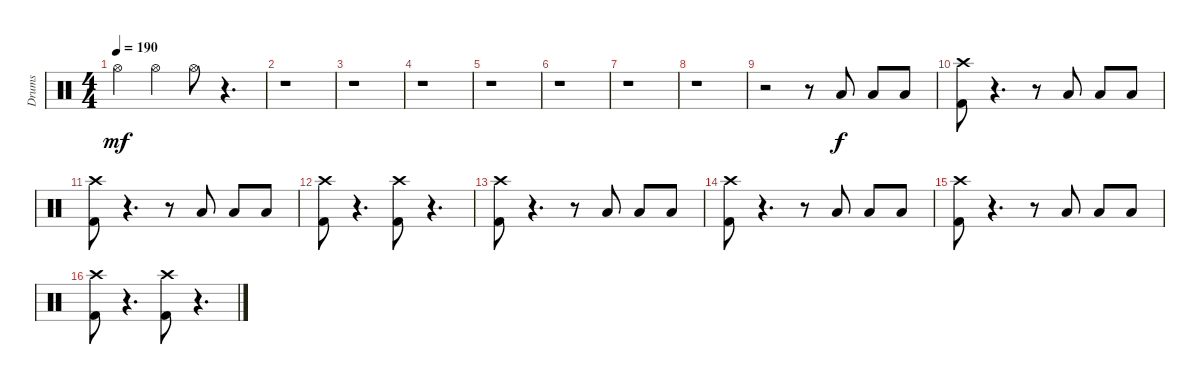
\track ("Drums" "Drums") {instrument percussion}
\staff {score}
\articulation defaults
\ts (4 4)
\tempo 190
\clef neutral
\ks c "Hi-Hat (open)".4{dy mf} "Hi-Hat (open)".4 "Hi-Hat (open)".8
r.4{d} |
r.1 |
r.1 |
r.1 |
r.1 |
r.1 |
r.1 |
r.1 |
r.2 r.8 "Low Tom (hit)".8{dy f} "Low Tom (hit)".8 "Low Floor Tom (hit)".8 |
("Kick (hit) 2" "Crash high (hit)").8 r.4{d} r.8 "Low Tom (hit)".8 "Low Tom (hit)".8 "Low Tom (hit)".8 |
("Kick (hit) 2" "Crash high (hit)").8 r.4{d} r.8 "Low Tom (hit)".8 "Low Tom (hit)".8 "Low Tom (hit)".8 |
("Kick (hit) 2" "Crash high (hit)").8 r.4{d} ("Kick (hit) 2" "Crash high (hit)").8 r.4{d} |
("Kick (hit) 2" "Crash high (hit)").8 r.4{d} r.8 "Low Tom (hit)".8 "Low Tom (hit)".8 "Low Tom (hit)".8 |
("Kick (hit) 2" "Crash high (hit)").8 r.4{d} r.8 "Low Tom (hit)".8 "Low Tom (hit)".8 "Low Tom (hit)".8 |
("Kick (hit) 2" "Crash high (hit)").8 r.4{d} r.8 "Low Tom (hit)".8 "Low Tom (hit)".8 "Low Tom (hit)".8 |
("Kick (hit) 2" "Crash high (hit)").8 r.4{d} ("Kick (hit) 2" "Crash high (hit)").8 r.4{d}
